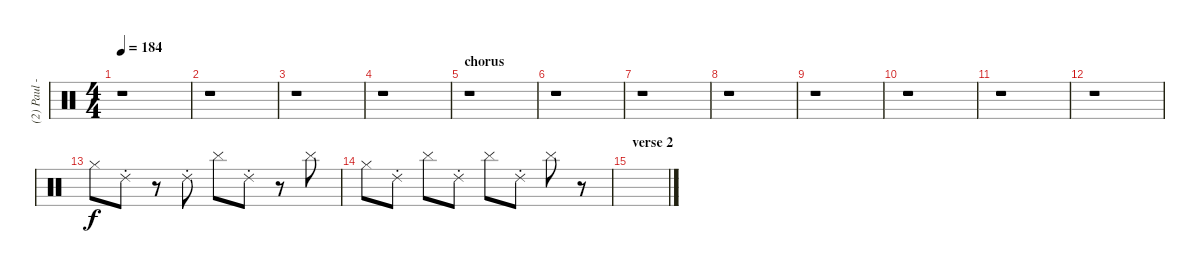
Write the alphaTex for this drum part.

\track ("(2) Paul - DJ" "(2) Paul -") {instrument percussion}
\staff {score}
\articulation defaults
\ts (4 4)
\tempo 184
\clef neutral
\ks c
r.1{dy f} |
r.1 |
r.1 |
r.1 |
\section ("" "chorus")
r.1 |
r.1 |
r.1 |
r.1 |
r.1 |
r.1 |
r.1 |
r.1 |
"Hi-Hat (closed)".8 "Ride (choke) 2".8 r.8 "Ride (choke) 2".8 "Cymbal (hit)".8 "Ride (choke) 2".8 r.8 "Cymbal (hit)".8 |
"Hi-Hat (closed)".8 "Ride (choke) 2".8 "Cymbal (hit)".8 "Ride (choke) 2".8 "Cymbal (hit)".8 "Ride (choke) 2".8 "Cymbal (hit)".8 r.8 |
\section ("" "verse 2")
